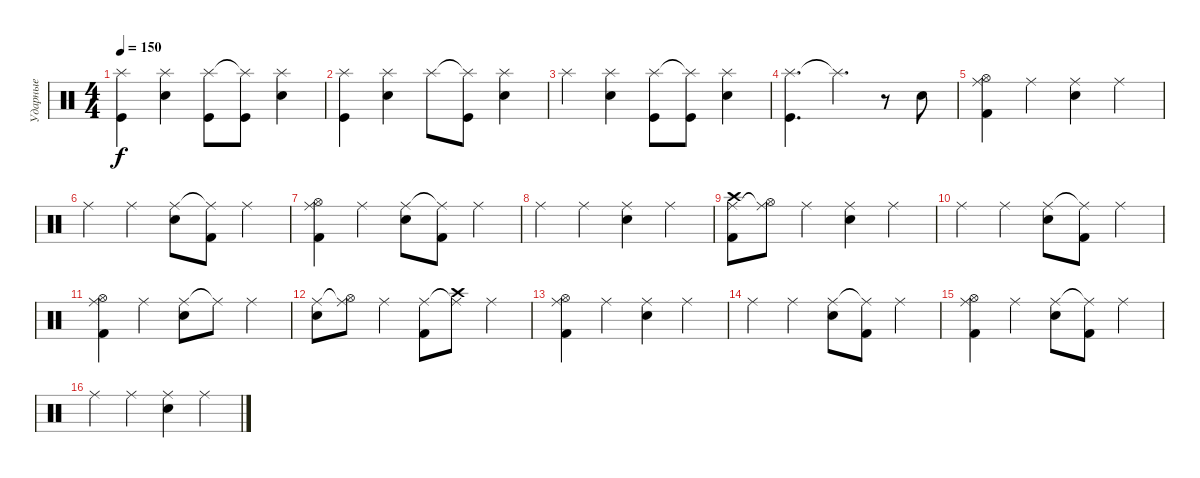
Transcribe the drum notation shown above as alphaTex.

\track ("Ударные" "Ударные") {instrument percussion}
\staff {score}
\articulation defaults
\ts (4 4)
\tempo 150
\clef neutral
\ks c
("Splash (hit)" "Kick (hit)").4{dy f} ("Splash (hit)" "Snare (hit) 2").4 ("Splash (hit)" "Kick (hit)").8 ("Splash (hit)"{t} "Kick (hit)").8 ("Splash (hit)" "Snare (hit) 2").4 |
("Splash (hit)" "Kick (hit)").4 ("Splash (hit)" "Snare (hit) 2").4 "Splash (hit)".8 ("Splash (hit)"{t} "Kick (hit)").8 ("Splash (hit)" "Snare (hit) 2").4 |
"Splash (hit)".4 ("Splash (hit)" "Snare (hit) 2").4 ("Splash (hit)" "Kick (hit)").8 ("Splash (hit)"{t} "Kick (hit)").8 ("Splash (hit)" "Snare (hit) 2").4 |
("Splash (hit)" "Kick (hit)").4{d} "Splash (hit)"{t}.4{d} r.8 "Snare (hit) 2".8 |
("Ride (middle)" "Kick (hit) 2" "Hi-Hat (open)").4 "Ride (middle)".4 ("Ride (middle)" "Snare (hit) 2").4 "Ride (middle)".4 |
"Ride (middle)".4 "Ride (middle)".4 ("Ride (middle)" "Snare (hit) 2").8 ("Ride (middle)"{t} "Kick (hit) 2").8 "Ride (middle)".4 |
("Ride (middle)" "Kick (hit) 2" "Hi-Hat (open)").4 "Ride (middle)".4 ("Ride (middle)" "Snare (hit) 2").8 ("Ride (middle)"{t} "Kick (hit) 2").8 "Ride (middle)".4 |
"Ride (middle)".4 "Ride (middle)".4 ("Ride (middle)" "Snare (hit) 2").4 "Ride (middle)".4 |
("Ride (middle)" "Kick (hit) 2" "Crash high (hit)").8 ("Ride (middle)"{t} "Hi-Hat (open)").8 "Ride (middle)".4 ("Ride (middle)" "Snare (hit) 2").4 "Ride (middle)".4 |
"Ride (middle)".4 "Ride (middle)".4 ("Ride (middle)" "Snare (hit) 2").8 ("Ride (middle)"{t} "Kick (hit) 2").8 "Ride (middle)".4 |
("Ride (middle)" "Kick (hit) 2" "Hi-Hat (open)").4 "Ride (middle)".4 ("Ride (middle)" "Snare (hit) 2").8 "Ride (middle)"{t}.8 "Ride (middle)".4 |
("Ride (middle)" "Snare (hit) 2").8 ("Ride (middle)"{t} "Hi-Hat (open)").8 "Ride (middle)".4 ("Ride (middle)" "Kick (hit) 2").8 ("Ride (middle)"{t} "Crash high (hit)").8 "Ride (middle)".4 |
("Ride (middle)" "Kick (hit) 2" "Hi-Hat (open)").4 "Ride (middle)".4 ("Ride (middle)" "Snare (hit) 2").4 "Ride (middle)".4 |
"Ride (middle)".4 "Ride (middle)".4 ("Ride (middle)" "Snare (hit) 2").8 ("Ride (middle)"{t} "Kick (hit) 2").8 "Ride (middle)".4 |
("Ride (middle)" "Kick (hit) 2" "Hi-Hat (open)").4 "Ride (middle)".4 ("Ride (middle)" "Snare (hit) 2").8 ("Ride (middle)"{t} "Kick (hit) 2").8 "Ride (middle)".4 |
"Ride (middle)".4 "Ride (middle)".4 ("Ride (middle)" "Snare (hit) 2").4 "Ride (middle)".4
